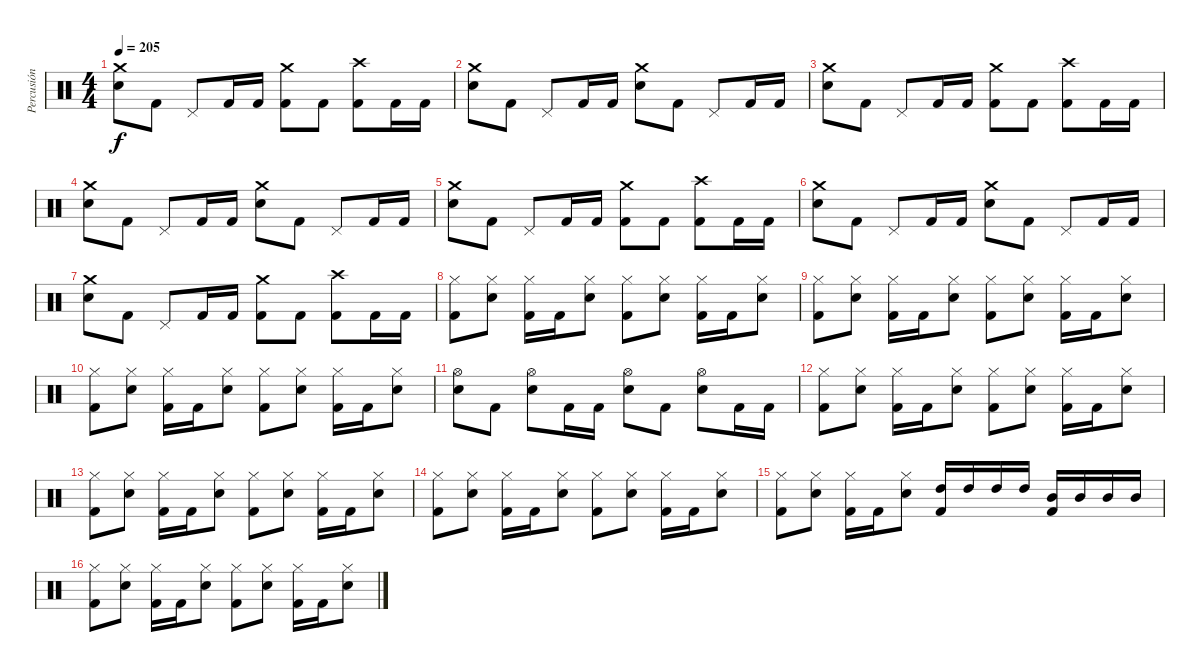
\track ("Percusión" "Percusión") {instrument percussion}
\staff {score}
\articulation defaults
\ts (4 4)
\tempo 205
\clef neutral
\ks c
("Crash medium (hit)" "Snare (hit) 2").8{dy f} "Kick (hit) 2".8 "Pedal Hi-Hat (hit)".8 "Kick (hit) 2".16 "Kick (hit) 2".16 ("Crash medium (hit)" "Kick (hit) 2").8 "Kick (hit) 2".8 ("Crash high (hit)" "Kick (hit) 2").8 "Kick (hit) 2".16 "Kick (hit) 2".16 |
("Crash medium (hit)" "Snare (hit) 2").8 "Kick (hit) 2".8 "Pedal Hi-Hat (hit)".8 "Kick (hit) 2".16 "Kick (hit) 2".16 ("Crash medium (hit)" "Snare (hit) 2").8 "Kick (hit) 2".8 "Pedal Hi-Hat (hit)".8 "Kick (hit) 2".16 "Kick (hit) 2".16 |
("Crash medium (hit)" "Snare (hit) 2").8 "Kick (hit) 2".8 "Pedal Hi-Hat (hit)".8 "Kick (hit) 2".16 "Kick (hit) 2".16 ("Crash medium (hit)" "Kick (hit) 2").8 "Kick (hit) 2".8 ("Crash high (hit)" "Kick (hit) 2").8 "Kick (hit) 2".16 "Kick (hit) 2".16 |
("Crash medium (hit)" "Snare (hit) 2").8 "Kick (hit) 2".8 "Pedal Hi-Hat (hit)".8 "Kick (hit) 2".16 "Kick (hit) 2".16 ("Crash medium (hit)" "Snare (hit) 2").8 "Kick (hit) 2".8 "Pedal Hi-Hat (hit)".8 "Kick (hit) 2".16 "Kick (hit) 2".16 |
("Crash medium (hit)" "Snare (hit) 2").8 "Kick (hit) 2".8 "Pedal Hi-Hat (hit)".8 "Kick (hit) 2".16 "Kick (hit) 2".16 ("Crash medium (hit)" "Kick (hit) 2").8 "Kick (hit) 2".8 ("Crash high (hit)" "Kick (hit) 2").8 "Kick (hit) 2".16 "Kick (hit) 2".16 |
("Crash medium (hit)" "Snare (hit) 2").8 "Kick (hit) 2".8 "Pedal Hi-Hat (hit)".8 "Kick (hit) 2".16 "Kick (hit) 2".16 ("Crash medium (hit)" "Snare (hit) 2").8 "Kick (hit) 2".8 "Pedal Hi-Hat (hit)".8 "Kick (hit) 2".16 "Kick (hit) 2".16 |
("Crash medium (hit)" "Snare (hit) 2").8 "Kick (hit) 2".8 "Pedal Hi-Hat (hit)".8 "Kick (hit) 2".16 "Kick (hit) 2".16 ("Crash medium (hit)" "Kick (hit) 2").8 "Kick (hit) 2".8 ("Crash high (hit)" "Kick (hit) 2").8 "Kick (hit) 2".16 "Kick (hit) 2".16 |
("Hi-Hat (closed)" "Kick (hit) 2").8 ("Hi-Hat (closed)" "Snare (hit) 2").8 ("Hi-Hat (closed)" "Kick (hit) 2").16 "Kick (hit) 2".16 ("Hi-Hat (closed)" "Snare (hit) 2").8 ("Hi-Hat (closed)" "Kick (hit) 2").8 ("Hi-Hat (closed)" "Snare (hit) 2").8 ("Hi-Hat (closed)" "Kick (hit) 2").16 "Kick (hit) 2".16 ("Hi-Hat (closed)" "Snare (hit) 2").8 |
("Hi-Hat (closed)" "Kick (hit) 2").8 ("Hi-Hat (closed)" "Snare (hit) 2").8 ("Hi-Hat (closed)" "Kick (hit) 2").16 "Kick (hit) 2".16 ("Hi-Hat (closed)" "Snare (hit) 2").8 ("Hi-Hat (closed)" "Kick (hit) 2").8 ("Hi-Hat (closed)" "Snare (hit) 2").8 ("Hi-Hat (closed)" "Kick (hit) 2").16 "Kick (hit) 2".16 ("Hi-Hat (closed)" "Snare (hit) 2").8 |
("Hi-Hat (closed)" "Kick (hit) 2").8 ("Hi-Hat (closed)" "Snare (hit) 2").8 ("Hi-Hat (closed)" "Kick (hit) 2").16 "Kick (hit) 2".16 ("Hi-Hat (closed)" "Snare (hit) 2").8 ("Hi-Hat (closed)" "Kick (hit) 2").8 ("Hi-Hat (closed)" "Snare (hit) 2").8 ("Hi-Hat (closed)" "Kick (hit) 2").16 "Kick (hit) 2".16 ("Hi-Hat (closed)" "Snare (hit) 2").8 |
("Hi-Hat (open)" "Snare (hit) 2").8 "Kick (hit) 2".8 ("Hi-Hat (open)" "Snare (hit) 2").8 "Kick (hit) 2".16 "Kick (hit) 2".16 ("Hi-Hat (open)" "Snare (hit) 2").8 "Kick (hit) 2".8 ("Hi-Hat (open)" "Snare (hit) 2").8 "Kick (hit) 2".16 "Kick (hit) 2".16 |
("Hi-Hat (closed)" "Kick (hit) 2").8 ("Hi-Hat (closed)" "Snare (hit) 2").8 ("Hi-Hat (closed)" "Kick (hit) 2").16 "Kick (hit) 2".16 ("Hi-Hat (closed)" "Snare (hit) 2").8 ("Hi-Hat (closed)" "Kick (hit) 2").8 ("Hi-Hat (closed)" "Snare (hit) 2").8 ("Hi-Hat (closed)" "Kick (hit) 2").16 "Kick (hit) 2".16 ("Hi-Hat (closed)" "Snare (hit) 2").8 |
("Hi-Hat (closed)" "Kick (hit) 2").8 ("Hi-Hat (closed)" "Snare (hit) 2").8 ("Hi-Hat (closed)" "Kick (hit) 2").16 "Kick (hit) 2".16 ("Hi-Hat (closed)" "Snare (hit) 2").8 ("Hi-Hat (closed)" "Kick (hit) 2").8 ("Hi-Hat (closed)" "Snare (hit) 2").8 ("Hi-Hat (closed)" "Kick (hit) 2").16 "Kick (hit) 2".16 ("Hi-Hat (closed)" "Snare (hit) 2").8 |
("Hi-Hat (closed)" "Kick (hit) 2").8 ("Hi-Hat (closed)" "Snare (hit) 2").8 ("Hi-Hat (closed)" "Kick (hit) 2").16 "Kick (hit) 2".16 ("Hi-Hat (closed)" "Snare (hit) 2").8 ("Hi-Hat (closed)" "Kick (hit) 2").8 ("Hi-Hat (closed)" "Snare (hit) 2").8 ("Hi-Hat (closed)" "Kick (hit) 2").16 "Kick (hit) 2".16 ("Hi-Hat (closed)" "Snare (hit) 2").8 |
("Hi-Hat (closed)" "Kick (hit) 2").8 ("Hi-Hat (closed)" "Snare (hit) 2").8 ("Hi-Hat (closed)" "Kick (hit) 2").16 "Kick (hit) 2".16 ("Hi-Hat (closed)" "Snare (hit) 2").8 ("High Tom (hit)" "Kick (hit) 2").16 "High Tom (hit)".16 "High Tom (hit)".16 "High Tom (hit)".16 ("Mid Tom (hit)" "Kick (hit) 2").16 "Mid Tom (hit)".16 "Mid Tom (hit)".16 "Mid Tom (hit)".16 |
("Hi-Hat (closed)" "Kick (hit) 2").8 ("Hi-Hat (closed)" "Snare (hit) 2").8 ("Hi-Hat (closed)" "Kick (hit) 2").16 "Kick (hit) 2".16 ("Hi-Hat (closed)" "Snare (hit) 2").8 ("Hi-Hat (closed)" "Kick (hit) 2").8 ("Hi-Hat (closed)" "Snare (hit) 2").8 ("Hi-Hat (closed)" "Kick (hit) 2").16 "Kick (hit) 2".16 ("Hi-Hat (closed)" "Snare (hit) 2").8
